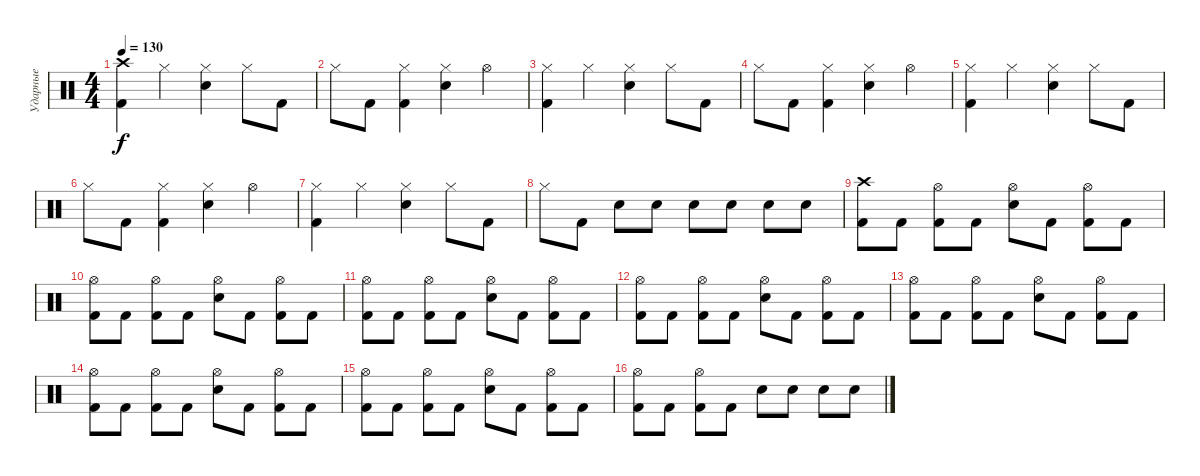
\track ("Ударные" "Ударные") {instrument percussion}
\staff {score}
\articulation defaults
\ts (4 4)
\tempo 130
\clef neutral
\ks c
("Crash high (hit)" "Kick (hit) 2").4{dy f} "Hi-Hat (closed)".4 ("Hi-Hat (closed)" "Snare (hit) 2").4 "Hi-Hat (closed)".8 "Kick (hit) 2".8 |
"Hi-Hat (closed)".8 "Kick (hit) 2".8 ("Hi-Hat (closed)" "Kick (hit) 2").4 ("Hi-Hat (closed)" "Snare (hit) 2").4 "Hi-Hat (open)".4 |
("Hi-Hat (closed)" "Kick (hit) 2").4 "Hi-Hat (closed)".4 ("Hi-Hat (closed)" "Snare (hit) 2").4 "Hi-Hat (closed)".8 "Kick (hit) 2".8 |
"Hi-Hat (closed)".8 "Kick (hit) 2".8 ("Hi-Hat (closed)" "Kick (hit) 2").4 ("Hi-Hat (closed)" "Snare (hit) 2").4 "Hi-Hat (open)".4 |
("Hi-Hat (closed)" "Kick (hit) 2").4 "Hi-Hat (closed)".4 ("Hi-Hat (closed)" "Snare (hit) 2").4 "Hi-Hat (closed)".8 "Kick (hit) 2".8 |
"Hi-Hat (closed)".8 "Kick (hit) 2".8 ("Hi-Hat (closed)" "Kick (hit) 2").4 ("Hi-Hat (closed)" "Snare (hit) 2").4 "Hi-Hat (open)".4 |
("Hi-Hat (closed)" "Kick (hit) 2").4 "Hi-Hat (closed)".4 ("Hi-Hat (closed)" "Snare (hit) 2").4 "Hi-Hat (closed)".8 "Kick (hit) 2".8 |
"Hi-Hat (closed)".8 "Kick (hit) 2".8 "Snare (hit) 2".8 "Snare (hit) 2".8 "Snare (hit) 2".8 "Snare (hit) 2".8 "Snare (hit) 2".8 "Snare (hit) 2".8 |
("Crash high (hit)" "Kick (hit) 2").8 "Kick (hit) 2".8 ("Hi-Hat (open)" "Kick (hit) 2").8 "Kick (hit) 2".8 ("Hi-Hat (open)" "Snare (hit) 2").8 "Kick (hit) 2".8 ("Hi-Hat (open)" "Kick (hit) 2").8 "Kick (hit) 2".8 |
("Hi-Hat (open)" "Kick (hit) 2").8 "Kick (hit) 2".8 ("Hi-Hat (open)" "Kick (hit) 2").8 "Kick (hit) 2".8 ("Hi-Hat (open)" "Snare (hit) 2").8 "Kick (hit) 2".8 ("Hi-Hat (open)" "Kick (hit) 2").8 "Kick (hit) 2".8 |
("Hi-Hat (open)" "Kick (hit) 2").8 "Kick (hit) 2".8 ("Hi-Hat (open)" "Kick (hit) 2").8 "Kick (hit) 2".8 ("Hi-Hat (open)" "Snare (hit) 2").8 "Kick (hit) 2".8 ("Hi-Hat (open)" "Kick (hit) 2").8 "Kick (hit) 2".8 |
("Hi-Hat (open)" "Kick (hit) 2").8 "Kick (hit) 2".8 ("Hi-Hat (open)" "Kick (hit) 2").8 "Kick (hit) 2".8 ("Hi-Hat (open)" "Snare (hit) 2").8 "Kick (hit) 2".8 ("Hi-Hat (open)" "Kick (hit) 2").8 "Kick (hit) 2".8 |
("Hi-Hat (open)" "Kick (hit) 2").8 "Kick (hit) 2".8 ("Hi-Hat (open)" "Kick (hit) 2").8 "Kick (hit) 2".8 ("Hi-Hat (open)" "Snare (hit) 2").8 "Kick (hit) 2".8 ("Hi-Hat (open)" "Kick (hit) 2").8 "Kick (hit) 2".8 |
("Hi-Hat (open)" "Kick (hit) 2").8 "Kick (hit) 2".8 ("Hi-Hat (open)" "Kick (hit) 2").8 "Kick (hit) 2".8 ("Hi-Hat (open)" "Snare (hit) 2").8 "Kick (hit) 2".8 ("Hi-Hat (open)" "Kick (hit) 2").8 "Kick (hit) 2".8 |
("Hi-Hat (open)" "Kick (hit) 2").8 "Kick (hit) 2".8 ("Hi-Hat (open)" "Kick (hit) 2").8 "Kick (hit) 2".8 ("Hi-Hat (open)" "Snare (hit) 2").8 "Kick (hit) 2".8 ("Hi-Hat (open)" "Kick (hit) 2").8 "Kick (hit) 2".8 |
("Hi-Hat (open)" "Kick (hit) 2").8 "Kick (hit) 2".8 ("Hi-Hat (open)" "Kick (hit) 2").8 "Kick (hit) 2".8 "Snare (hit) 2".8 "Snare (hit) 2".8 "Snare (hit) 2".8 "Snare (hit) 2".8
